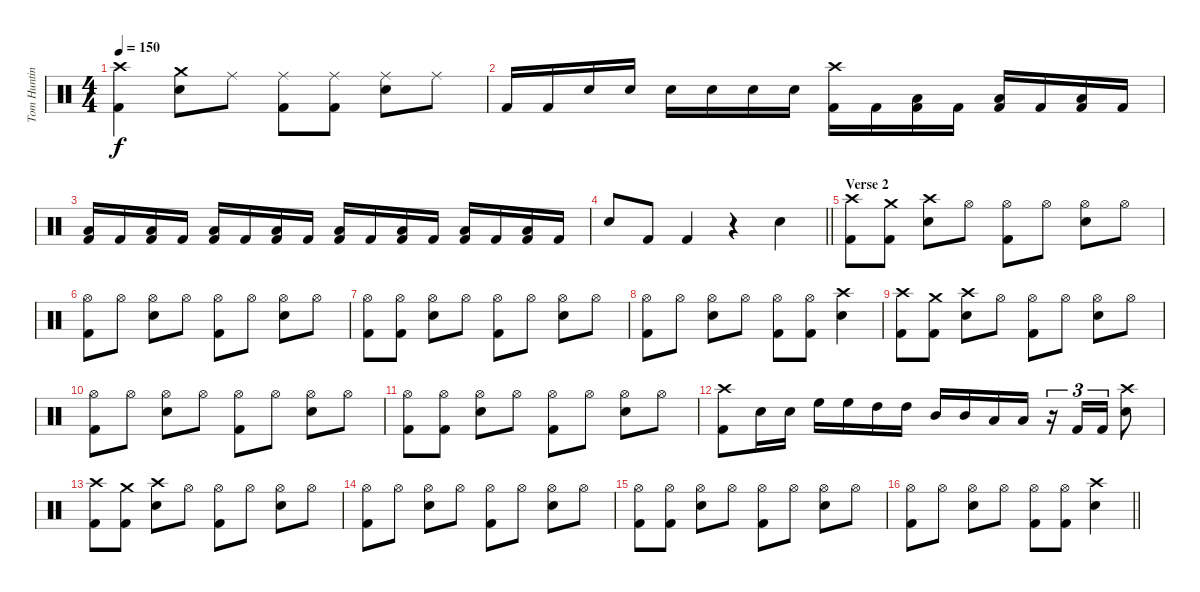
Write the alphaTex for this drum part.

\track ("Tom Hunting" "Tom Huntin") {instrument percussion}
\staff {score}
\articulation defaults
\ts (4 4)
\tempo 150
\clef neutral
\ks c
("Crash high (hit)" "Kick (hit) 2").4{dy f} ("Crash medium (hit)" "Snare (hit) 2").8 "Ride (middle)".8 ("Ride (middle)" "Kick (hit) 2").8 ("Ride (middle)" "Kick (hit) 2").8 ("Ride (middle)" "Snare (hit) 2").8 "Ride (middle)".8 |
"Kick (hit) 2".16 "Kick (hit) 2".16 "Snare (hit) 2".16 "Snare (hit) 2".16 "Snare (hit) 2".16 "Snare (hit) 2".16 "Snare (hit) 2".16 "Snare (hit) 2".16 ("Crash high (hit)" "Kick (hit) 2").16 "Kick (hit) 2".16 ("Low Floor Tom (hit)" "Kick (hit) 2").16 "Kick (hit) 2".16 ("Low Floor Tom (hit)" "Kick (hit) 2").16 "Kick (hit) 2".16 ("Low Floor Tom (hit)" "Kick (hit) 2").16 "Kick (hit) 2".16 |
("Low Floor Tom (hit)" "Kick (hit) 2").16 "Kick (hit) 2".16 ("Low Floor Tom (hit)" "Kick (hit) 2").16 "Kick (hit) 2".16 ("Low Floor Tom (hit)" "Kick (hit) 2").16 "Kick (hit) 2".16 ("Low Floor Tom (hit)" "Kick (hit) 2").16 "Kick (hit) 2".16 ("Low Floor Tom (hit)" "Kick (hit) 2").16 "Kick (hit) 2".16 ("Low Floor Tom (hit)" "Kick (hit) 2").16 "Kick (hit) 2".16 ("Low Floor Tom (hit)" "Kick (hit) 2").16 "Kick (hit) 2".16 ("Low Floor Tom (hit)" "Kick (hit) 2").16 "Kick (hit) 2".16 |
\barLineRight lightlight "Snare (hit) 2".8 "Kick (hit) 2".8 "Kick (hit) 2".4
r.4 "Snare (hit) 2".4 |
\section ("" "Verse 2")
("Crash high (hit)" "Kick (hit) 2").8 ("Crash medium (hit)" "Kick (hit) 2").8 ("Crash high (hit)" "Snare (hit) 2").8 "Hi-Hat (open)".8 ("Hi-Hat (open)" "Kick (hit) 2").8 "Hi-Hat (open)".8 ("Hi-Hat (open)" "Snare (hit) 2").8 "Hi-Hat (open)".8 |
("Hi-Hat (open)" "Kick (hit) 2").8 "Hi-Hat (open)".8 ("Hi-Hat (open)" "Snare (hit) 2").8 "Hi-Hat (open)".8 ("Hi-Hat (open)" "Kick (hit) 2").8 "Hi-Hat (open)".8 ("Hi-Hat (open)" "Snare (hit) 2").8 "Hi-Hat (open)".8 |
("Hi-Hat (open)" "Kick (hit) 2").8 ("Hi-Hat (open)" "Kick (hit) 2").8 ("Hi-Hat (open)" "Snare (hit) 2").8 "Hi-Hat (open)".8 ("Hi-Hat (open)" "Kick (hit) 2").8 "Hi-Hat (open)".8 ("Hi-Hat (open)" "Snare (hit) 2").8 "Hi-Hat (open)".8 |
("Hi-Hat (open)" "Kick (hit) 2").8 "Hi-Hat (open)".8 ("Hi-Hat (open)" "Snare (hit) 2").8 "Hi-Hat (open)".8 ("Hi-Hat (open)" "Kick (hit) 2").8 ("Hi-Hat (open)" "Kick (hit) 2").8 ("Crash high (hit)" "Snare (hit) 2").4 |
("Crash high (hit)" "Kick (hit) 2").8 ("Crash medium (hit)" "Kick (hit) 2").8 ("Crash high (hit)" "Snare (hit) 2").8 "Hi-Hat (open)".8 ("Hi-Hat (open)" "Kick (hit) 2").8 "Hi-Hat (open)".8 ("Hi-Hat (open)" "Snare (hit) 2").8 "Hi-Hat (open)".8 |
("Hi-Hat (open)" "Kick (hit) 2").8 "Hi-Hat (open)".8 ("Hi-Hat (open)" "Snare (hit) 2").8 "Hi-Hat (open)".8 ("Hi-Hat (open)" "Kick (hit) 2").8 "Hi-Hat (open)".8 ("Hi-Hat (open)" "Snare (hit) 2").8 "Hi-Hat (open)".8 |
("Hi-Hat (open)" "Kick (hit) 2").8 ("Hi-Hat (open)" "Kick (hit) 2").8 ("Hi-Hat (open)" "Snare (hit) 2").8 "Hi-Hat (open)".8 ("Hi-Hat (open)" "Kick (hit) 2").8 "Hi-Hat (open)".8 ("Hi-Hat (open)" "Snare (hit) 2").8 "Hi-Hat (open)".8 |
("Crash high (hit)" "Kick (hit) 2").8 "Snare (hit) 2".16 "Snare (hit) 2".16 "High Floor Tom (hit)".16 "High Floor Tom (hit)".16 "High Tom (hit)".16 "High Tom (hit)".16 "Mid Tom (hit)".16 "Mid Tom (hit)".16 "Low Tom (hit)".16 "Low Tom (hit)".16 r.16{tu (3 2)} "Kick (hit) 2".16{tu (3 2)} "Kick (hit) 2".16{tu (3 2)} ("Crash high (hit)" "Snare (hit) 2").8 |
("Crash high (hit)" "Kick (hit) 2").8 ("Crash medium (hit)" "Kick (hit) 2").8 ("Crash high (hit)" "Snare (hit) 2").8 "Hi-Hat (open)".8 ("Hi-Hat (open)" "Kick (hit) 2").8 "Hi-Hat (open)".8 ("Hi-Hat (open)" "Snare (hit) 2").8 "Hi-Hat (open)".8 |
("Hi-Hat (open)" "Kick (hit) 2").8 "Hi-Hat (open)".8 ("Hi-Hat (open)" "Snare (hit) 2").8 "Hi-Hat (open)".8 ("Hi-Hat (open)" "Kick (hit) 2").8 "Hi-Hat (open)".8 ("Hi-Hat (open)" "Snare (hit) 2").8 "Hi-Hat (open)".8 |
("Hi-Hat (open)" "Kick (hit) 2").8 ("Hi-Hat (open)" "Kick (hit) 2").8 ("Hi-Hat (open)" "Snare (hit) 2").8 "Hi-Hat (open)".8 ("Hi-Hat (open)" "Kick (hit) 2").8 "Hi-Hat (open)".8 ("Hi-Hat (open)" "Snare (hit) 2").8 "Hi-Hat (open)".8 |
\barLineRight lightlight
("Hi-Hat (open)" "Kick (hit) 2").8 "Hi-Hat (open)".8 ("Hi-Hat (open)" "Snare (hit) 2").8 "Hi-Hat (open)".8 ("Hi-Hat (open)" "Kick (hit) 2").8 ("Hi-Hat (open)" "Kick (hit) 2").8 ("Crash high (hit)" "Snare (hit) 2").4
